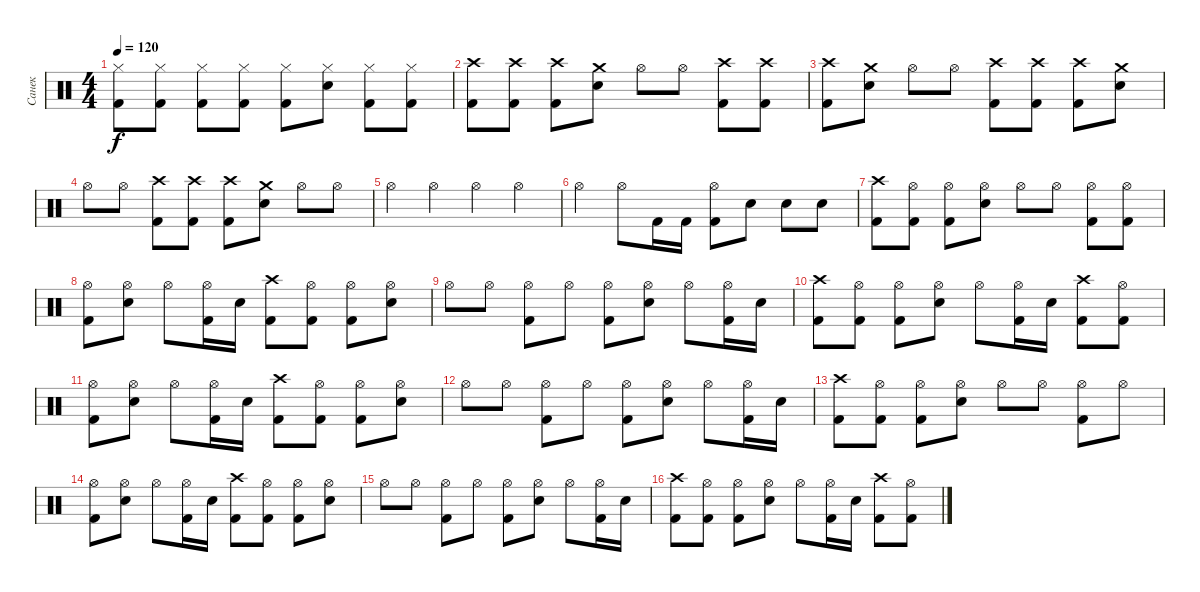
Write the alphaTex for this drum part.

\track ("Санек" "Санек") {instrument percussion}
\staff {score}
\articulation defaults
\ts (4 4)
\tempo 120
\clef neutral
\ks c
("Hi-Hat (closed)" "Kick (hit) 2").8{dy f} ("Hi-Hat (closed)" "Kick (hit) 2").8 ("Hi-Hat (closed)" "Kick (hit) 2").8 ("Hi-Hat (closed)" "Kick (hit) 2").8 ("Hi-Hat (closed)" "Kick (hit) 2").8 ("Hi-Hat (closed)" "Electric Snare (hit)").8 ("Hi-Hat (closed)" "Kick (hit) 2").8 ("Hi-Hat (closed)" "Kick (hit) 2").8 |
("Crash high (hit)" "Kick (hit) 2").8 ("Crash high (hit)" "Kick (hit) 2").8 ("Crash high (hit)" "Kick (hit) 2").8 ("Crash medium (hit)" "Electric Snare (hit)").8 "Hi-Hat (open)".8 "Hi-Hat (open)".8 ("Crash high (hit)" "Kick (hit) 2").8 ("Crash high (hit)" "Kick (hit) 2").8 |
("Crash high (hit)" "Kick (hit) 2").8 ("Crash medium (hit)" "Electric Snare (hit)").8 "Hi-Hat (open)".8 "Hi-Hat (open)".8 ("Crash high (hit)" "Kick (hit) 2").8 ("Crash high (hit)" "Kick (hit) 2").8 ("Crash high (hit)" "Kick (hit) 2").8 ("Crash medium (hit)" "Electric Snare (hit)").8 |
"Hi-Hat (open)".8 "Hi-Hat (open)".8 ("Crash high (hit)" "Kick (hit) 2").8 ("Crash high (hit)" "Kick (hit) 2").8 ("Crash high (hit)" "Kick (hit) 2").8 ("Crash medium (hit)" "Electric Snare (hit)").8 "Hi-Hat (open)".8 "Hi-Hat (open)".8 |
"Hi-Hat (open)".4 "Hi-Hat (open)".4 "Hi-Hat (open)".4 "Hi-Hat (open)".4 |
"Hi-Hat (open)".4 "Hi-Hat (open)".8 "Kick (hit) 2".16 "Kick (hit) 2".16 ("Hi-Hat (open)" "Kick (hit) 2").8 "Electric Snare (hit)".8 "Electric Snare (hit)".8 "Electric Snare (hit)".8 |
("Crash high (hit)" "Kick (hit) 2").8 ("Hi-Hat (open)" "Kick (hit) 2").8 ("Hi-Hat (open)" "Kick (hit) 2").8 ("Hi-Hat (open)" "Electric Snare (hit)").8 "Hi-Hat (open)".8 "Hi-Hat (open)".8 ("Hi-Hat (open)" "Kick (hit) 2").8 ("Hi-Hat (open)" "Kick (hit) 2").8 |
("Hi-Hat (open)" "Kick (hit) 2").8 ("Hi-Hat (open)" "Electric Snare (hit)").8 "Hi-Hat (open)".8 ("Hi-Hat (open)" "Kick (hit) 2").16 "Electric Snare (hit)".16 ("Crash high (hit)" "Kick (hit) 2").8 ("Hi-Hat (open)" "Kick (hit) 2").8 ("Hi-Hat (open)" "Kick (hit) 2").8 ("Hi-Hat (open)" "Electric Snare (hit)").8 |
"Hi-Hat (open)".8 "Hi-Hat (open)".8 ("Hi-Hat (open)" "Kick (hit) 2").8 "Hi-Hat (open)".8 ("Hi-Hat (open)" "Kick (hit) 2").8 ("Hi-Hat (open)" "Electric Snare (hit)").8 "Hi-Hat (open)".8 ("Hi-Hat (open)" "Kick (hit) 2").16 "Electric Snare (hit)".16 |
("Crash high (hit)" "Kick (hit) 2").8 ("Hi-Hat (open)" "Kick (hit) 2").8 ("Hi-Hat (open)" "Kick (hit) 2").8 ("Hi-Hat (open)" "Electric Snare (hit)").8 "Hi-Hat (open)".8 ("Hi-Hat (open)" "Kick (hit) 2").16 "Electric Snare (hit)".16 ("Crash high (hit)" "Kick (hit) 2").8 ("Hi-Hat (open)" "Kick (hit) 2").8 |
("Hi-Hat (open)" "Kick (hit) 2").8 ("Hi-Hat (open)" "Electric Snare (hit)").8 "Hi-Hat (open)".8 ("Hi-Hat (open)" "Kick (hit) 2").16 "Electric Snare (hit)".16 ("Crash high (hit)" "Kick (hit) 2").8 ("Hi-Hat (open)" "Kick (hit) 2").8 ("Hi-Hat (open)" "Kick (hit) 2").8 ("Hi-Hat (open)" "Electric Snare (hit)").8 |
"Hi-Hat (open)".8 "Hi-Hat (open)".8 ("Hi-Hat (open)" "Kick (hit) 2").8 "Hi-Hat (open)".8 ("Hi-Hat (open)" "Kick (hit) 2").8 ("Hi-Hat (open)" "Electric Snare (hit)").8 "Hi-Hat (open)".8 ("Hi-Hat (open)" "Kick (hit) 2").16 "Electric Snare (hit)".16 |
("Crash high (hit)" "Kick (hit) 2").8 ("Hi-Hat (open)" "Kick (hit) 2").8 ("Hi-Hat (open)" "Kick (hit) 2").8 ("Hi-Hat (open)" "Electric Snare (hit)").8 "Hi-Hat (open)".8 "Hi-Hat (open)".8 ("Hi-Hat (open)" "Kick (hit) 2").8 "Hi-Hat (open)".8 |
("Hi-Hat (open)" "Kick (hit) 2").8 ("Hi-Hat (open)" "Electric Snare (hit)").8 "Hi-Hat (open)".8 ("Hi-Hat (open)" "Kick (hit) 2").16 "Electric Snare (hit)".16 ("Crash high (hit)" "Kick (hit) 2").8 ("Hi-Hat (open)" "Kick (hit) 2").8 ("Hi-Hat (open)" "Kick (hit) 2").8 ("Hi-Hat (open)" "Electric Snare (hit)").8 |
"Hi-Hat (open)".8 "Hi-Hat (open)".8 ("Hi-Hat (open)" "Kick (hit) 2").8 "Hi-Hat (open)".8 ("Hi-Hat (open)" "Kick (hit) 2").8 ("Hi-Hat (open)" "Electric Snare (hit)").8 "Hi-Hat (open)".8 ("Hi-Hat (open)" "Kick (hit) 2").16 "Electric Snare (hit)".16 |
("Crash high (hit)" "Kick (hit) 2").8 ("Hi-Hat (open)" "Kick (hit) 2").8 ("Hi-Hat (open)" "Kick (hit) 2").8 ("Hi-Hat (open)" "Electric Snare (hit)").8 "Hi-Hat (open)".8 ("Hi-Hat (open)" "Kick (hit) 2").16 "Electric Snare (hit)".16 ("Crash high (hit)" "Kick (hit) 2").8 ("Hi-Hat (open)" "Kick (hit) 2").8
